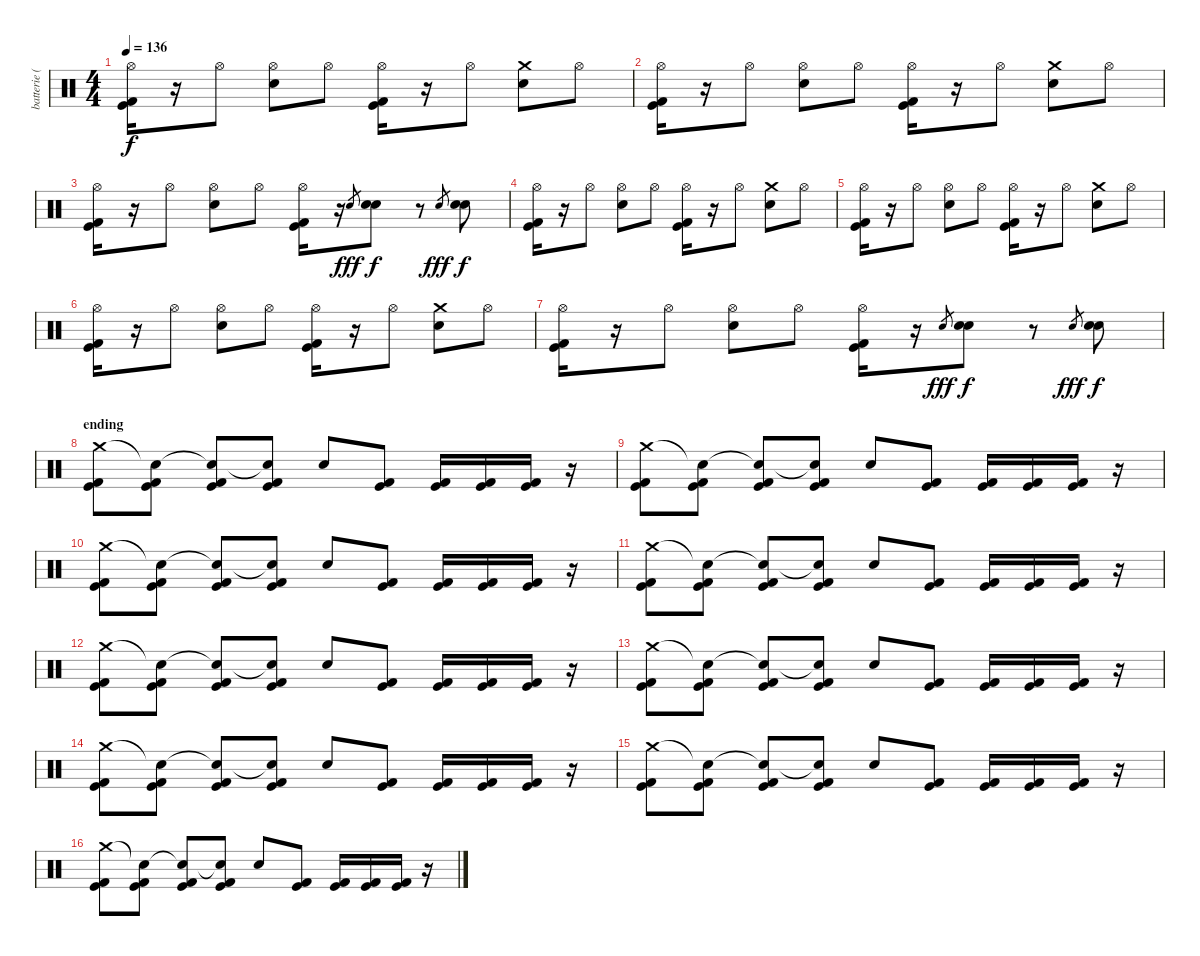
\track ("batterie (J.Castillo)" "batterie (") {instrument percussion}
\staff {score}
\articulation defaults
\ts (4 4)
\tempo 136
\clef neutral
\ks c
("Hi-Hat (open)" "Kick (hit) 2" "Kick (hit)").16{dy f} r.16 "Hi-Hat (open)".8 ("Hi-Hat (open)" "Electric Snare (hit)").8 "Hi-Hat (open)".8 ("Hi-Hat (open)" "Kick (hit) 2" "Kick (hit)").16 r.16 "Hi-Hat (open)".8 ("Crash medium (hit)" "Electric Snare (hit)").8 "Hi-Hat (open)".8 |
("Hi-Hat (open)" "Kick (hit) 2" "Kick (hit)").16 r.16 "Hi-Hat (open)".8 ("Hi-Hat (open)" "Electric Snare (hit)").8 "Hi-Hat (open)".8 ("Hi-Hat (open)" "Kick (hit) 2" "Kick (hit)").16 r.16 "Hi-Hat (open)".8 ("Crash medium (hit)" "Electric Snare (hit)").8 "Hi-Hat (open)".8 |
("Hi-Hat (open)" "Kick (hit) 2" "Kick (hit)").16 r.16 "Hi-Hat (open)".8 ("Hi-Hat (open)" "Electric Snare (hit)").8 "Hi-Hat (open)".8 ("Hi-Hat (open)" "Kick (hit) 2" "Kick (hit)").16 r.16 "Electric Snare (hit)"{h}.8{gr dy fff} ("Electric Snare (hit)" "Electric Snare (hit)").8{dy f} r.8 "Electric Snare (hit)".8{gr dy fff} ("Electric Snare (hit)" "Electric Snare (hit)").8{dy f} |
("Hi-Hat (open)" "Kick (hit) 2" "Kick (hit)").16 r.16 "Hi-Hat (open)".8 ("Hi-Hat (open)" "Electric Snare (hit)").8 "Hi-Hat (open)".8 ("Hi-Hat (open)" "Kick (hit) 2" "Kick (hit)").16 r.16 "Hi-Hat (open)".8 ("Crash medium (hit)" "Electric Snare (hit)").8 "Hi-Hat (open)".8 |
("Hi-Hat (open)" "Kick (hit) 2" "Kick (hit)").16 r.16 "Hi-Hat (open)".8 ("Hi-Hat (open)" "Electric Snare (hit)").8 "Hi-Hat (open)".8 ("Hi-Hat (open)" "Kick (hit) 2" "Kick (hit)").16 r.16 "Hi-Hat (open)".8 ("Crash medium (hit)" "Electric Snare (hit)").8 "Hi-Hat (open)".8 |
("Hi-Hat (open)" "Kick (hit) 2" "Kick (hit)").16 r.16 "Hi-Hat (open)".8 ("Hi-Hat (open)" "Electric Snare (hit)").8 "Hi-Hat (open)".8 ("Hi-Hat (open)" "Kick (hit) 2" "Kick (hit)").16 r.16 "Hi-Hat (open)".8 ("Crash medium (hit)" "Electric Snare (hit)").8 "Hi-Hat (open)".8 |
("Hi-Hat (open)" "Kick (hit) 2" "Kick (hit)").16 r.16 "Hi-Hat (open)".8 ("Hi-Hat (open)" "Electric Snare (hit)").8 "Hi-Hat (open)".8 ("Hi-Hat (open)" "Kick (hit) 2" "Kick (hit)").16 r.16 "Electric Snare (hit)"{h}.8{gr dy fff} ("Electric Snare (hit)" "Electric Snare (hit)").8{dy f} r.8 "Electric Snare (hit)".8{gr dy fff} ("Electric Snare (hit)" "Electric Snare (hit)").8{dy f} |
\section ("" "ending")
("Crash medium (hit)" "Kick (hit) 2" "Kick (hit)").8 ("Snare (hit)"{t} "Kick (hit) 2" "Kick (hit)").8 ("Snare (hit)"{t} "Kick (hit) 2" "Kick (hit)").8 ("Snare (hit)"{t} "Kick (hit) 2" "Kick (hit)").8 "Electric Snare (hit)".8 ("Kick (hit) 2" "Kick (hit)").8 ("Kick (hit) 2" "Kick (hit)").16 ("Kick (hit) 2" "Kick (hit)").16 ("Kick (hit) 2" "Kick (hit)").16 r.16 |
("Crash medium (hit)" "Kick (hit) 2" "Kick (hit)").8 ("Snare (hit)"{t} "Kick (hit) 2" "Kick (hit)").8 ("Snare (hit)"{t} "Kick (hit) 2" "Kick (hit)").8 ("Snare (hit)"{t} "Kick (hit) 2" "Kick (hit)").8 "Electric Snare (hit)".8 ("Kick (hit) 2" "Kick (hit)").8 ("Kick (hit) 2" "Kick (hit)").16 ("Kick (hit) 2" "Kick (hit)").16 ("Kick (hit) 2" "Kick (hit)").16 r.16 |
("Crash medium (hit)" "Kick (hit) 2" "Kick (hit)").8 ("Snare (hit)"{t} "Kick (hit) 2" "Kick (hit)").8 ("Snare (hit)"{t} "Kick (hit) 2" "Kick (hit)").8 ("Snare (hit)"{t} "Kick (hit) 2" "Kick (hit)").8 "Electric Snare (hit)".8 ("Kick (hit) 2" "Kick (hit)").8 ("Kick (hit) 2" "Kick (hit)").16 ("Kick (hit) 2" "Kick (hit)").16 ("Kick (hit) 2" "Kick (hit)").16 r.16 |
("Crash medium (hit)" "Kick (hit) 2" "Kick (hit)").8 ("Snare (hit)"{t} "Kick (hit) 2" "Kick (hit)").8 ("Snare (hit)"{t} "Kick (hit) 2" "Kick (hit)").8 ("Snare (hit)"{t} "Kick (hit) 2" "Kick (hit)").8 "Electric Snare (hit)".8 ("Kick (hit) 2" "Kick (hit)").8 ("Kick (hit) 2" "Kick (hit)").16 ("Kick (hit) 2" "Kick (hit)").16 ("Kick (hit) 2" "Kick (hit)").16 r.16 |
("Crash medium (hit)" "Kick (hit) 2" "Kick (hit)").8 ("Snare (hit)"{t} "Kick (hit) 2" "Kick (hit)").8 ("Snare (hit)"{t} "Kick (hit) 2" "Kick (hit)").8 ("Snare (hit)"{t} "Kick (hit) 2" "Kick (hit)").8 "Electric Snare (hit)".8 ("Kick (hit) 2" "Kick (hit)").8 ("Kick (hit) 2" "Kick (hit)").16 ("Kick (hit) 2" "Kick (hit)").16 ("Kick (hit) 2" "Kick (hit)").16 r.16 |
("Crash medium (hit)" "Kick (hit) 2" "Kick (hit)").8 ("Snare (hit)"{t} "Kick (hit) 2" "Kick (hit)").8 ("Snare (hit)"{t} "Kick (hit) 2" "Kick (hit)").8 ("Snare (hit)"{t} "Kick (hit) 2" "Kick (hit)").8 "Electric Snare (hit)".8 ("Kick (hit) 2" "Kick (hit)").8 ("Kick (hit) 2" "Kick (hit)").16 ("Kick (hit) 2" "Kick (hit)").16 ("Kick (hit) 2" "Kick (hit)").16 r.16 |
("Crash medium (hit)" "Kick (hit) 2" "Kick (hit)").8 ("Snare (hit)"{t} "Kick (hit) 2" "Kick (hit)").8 ("Snare (hit)"{t} "Kick (hit) 2" "Kick (hit)").8 ("Snare (hit)"{t} "Kick (hit) 2" "Kick (hit)").8 "Electric Snare (hit)".8 ("Kick (hit) 2" "Kick (hit)").8 ("Kick (hit) 2" "Kick (hit)").16 ("Kick (hit) 2" "Kick (hit)").16 ("Kick (hit) 2" "Kick (hit)").16 r.16 |
("Crash medium (hit)" "Kick (hit) 2" "Kick (hit)").8 ("Snare (hit)"{t} "Kick (hit) 2" "Kick (hit)").8 ("Snare (hit)"{t} "Kick (hit) 2" "Kick (hit)").8 ("Snare (hit)"{t} "Kick (hit) 2" "Kick (hit)").8 "Electric Snare (hit)".8 ("Kick (hit) 2" "Kick (hit)").8 ("Kick (hit) 2" "Kick (hit)").16 ("Kick (hit) 2" "Kick (hit)").16 ("Kick (hit) 2" "Kick (hit)").16 r.16 |
("Crash medium (hit)" "Kick (hit) 2" "Kick (hit)").8 ("Snare (hit)"{t} "Kick (hit) 2" "Kick (hit)").8 ("Snare (hit)"{t} "Kick (hit) 2" "Kick (hit)").8 ("Snare (hit)"{t} "Kick (hit) 2" "Kick (hit)").8 "Electric Snare (hit)".8 ("Kick (hit) 2" "Kick (hit)").8 ("Kick (hit) 2" "Kick (hit)").16 ("Kick (hit) 2" "Kick (hit)").16 ("Kick (hit) 2" "Kick (hit)").16 r.16
